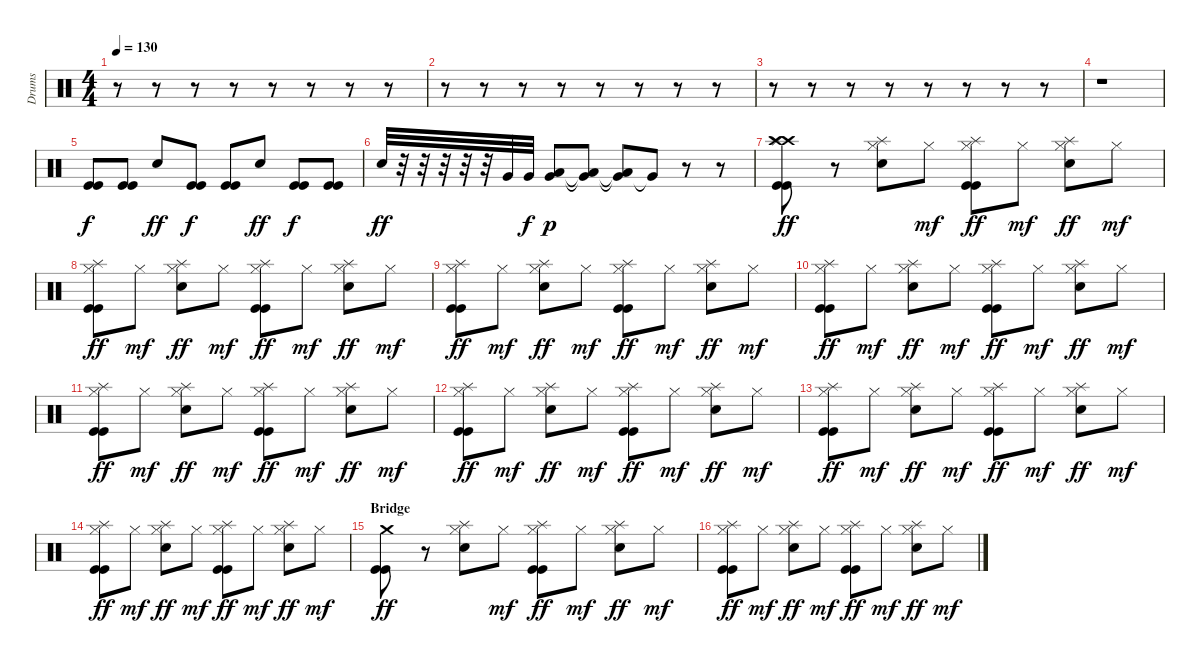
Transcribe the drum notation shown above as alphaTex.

\track ("Drums" "Drums") {instrument percussion}
\staff {score}
\articulation defaults
\ts (4 4)
\tempo 130
\clef neutral
\ks c
r.8{dy mp} r.8 r.8 r.8 r.8 r.8 r.8 r.8 |
r.8 r.8 r.8 r.8 r.8 r.8 r.8 r.8 |
r.8 r.8 r.8 r.8 r.8 r.8 r.8 r.8 |
r.1 |
("Kick (hit)" "Kick (hit)").8{dy f} ("Kick (hit)" "Kick (hit)").8 "Snare (hit) 2".8{dy ff} ("Kick (hit)" "Kick (hit)").8{dy f} ("Kick (hit)" "Kick (hit)").8 "Snare (hit) 2".8{dy ff} ("Kick (hit)" "Kick (hit)").8{dy f} ("Kick (hit)" "Kick (hit)").8 |
"Snare (hit) 2".32{dy ff} r.32 r.32 r.32 r.32 r.32 "Very Low Tom (hit)".32 "Very Low Tom (hit)".32{dy f} ("Very Low Tom (hit)" "Low Floor Tom (hit)").8{dy p} ("Very Low Tom (hit)"{t} "Low Floor Tom (hit)"{t}).8 ("Very Low Tom (hit)"{t} "Low Floor Tom (hit)"{t}).8 "Very Low Tom (hit)"{t}.8 r.8 r.8 |
("Crash high (hit)" "Crash high (hit)" "Splash (hit)" "Kick (hit)" "Kick (hit)").8{dy ff} r.8 ("Hi-Hat (closed)" "Splash (hit)" "Snare (hit) 2").8 "Hi-Hat (closed)".8{dy mf} ("Hi-Hat (closed)" "Splash (hit)" "Kick (hit)" "Kick (hit)").8{dy ff} "Hi-Hat (closed)".8{dy mf} ("Hi-Hat (closed)" "Splash (hit)" "Snare (hit) 2").8{dy ff} "Hi-Hat (closed)".8{dy mf} |
("Hi-Hat (closed)" "Splash (hit)" "Kick (hit)" "Kick (hit)").8{dy ff} "Hi-Hat (closed)".8{dy mf} ("Hi-Hat (closed)" "Splash (hit)" "Snare (hit) 2").8{dy ff} "Hi-Hat (closed)".8{dy mf} ("Hi-Hat (closed)" "Splash (hit)" "Kick (hit)" "Kick (hit)").8{dy ff} "Hi-Hat (closed)".8{dy mf} ("Hi-Hat (closed)" "Splash (hit)" "Snare (hit) 2").8{dy ff} "Hi-Hat (closed)".8{dy mf} |
("Hi-Hat (closed)" "Splash (hit)" "Kick (hit)" "Kick (hit)").8{dy ff} "Hi-Hat (closed)".8{dy mf} ("Hi-Hat (closed)" "Splash (hit)" "Snare (hit) 2").8{dy ff} "Hi-Hat (closed)".8{dy mf} ("Hi-Hat (closed)" "Splash (hit)" "Kick (hit)" "Kick (hit)").8{dy ff} "Hi-Hat (closed)".8{dy mf} ("Hi-Hat (closed)" "Splash (hit)" "Snare (hit) 2").8{dy ff} "Hi-Hat (closed)".8{dy mf} |
("Hi-Hat (closed)" "Splash (hit)" "Kick (hit)" "Kick (hit)").8{dy ff} "Hi-Hat (closed)".8{dy mf} ("Hi-Hat (closed)" "Splash (hit)" "Snare (hit) 2").8{dy ff} "Hi-Hat (closed)".8{dy mf} ("Hi-Hat (closed)" "Splash (hit)" "Kick (hit)" "Kick (hit)").8{dy ff} "Hi-Hat (closed)".8{dy mf} ("Hi-Hat (closed)" "Splash (hit)" "Snare (hit) 2").8{dy ff} "Hi-Hat (closed)".8{dy mf} |
("Hi-Hat (closed)" "Splash (hit)" "Kick (hit)" "Kick (hit)").8{dy ff} "Hi-Hat (closed)".8{dy mf} ("Hi-Hat (closed)" "Splash (hit)" "Snare (hit) 2").8{dy ff} "Hi-Hat (closed)".8{dy mf} ("Hi-Hat (closed)" "Splash (hit)" "Kick (hit)" "Kick (hit)").8{dy ff} "Hi-Hat (closed)".8{dy mf} ("Hi-Hat (closed)" "Splash (hit)" "Snare (hit) 2").8{dy ff} "Hi-Hat (closed)".8{dy mf} |
("Hi-Hat (closed)" "Splash (hit)" "Kick (hit)" "Kick (hit)").8{dy ff} "Hi-Hat (closed)".8{dy mf} ("Hi-Hat (closed)" "Splash (hit)" "Snare (hit) 2").8{dy ff} "Hi-Hat (closed)".8{dy mf} ("Hi-Hat (closed)" "Splash (hit)" "Kick (hit)" "Kick (hit)").8{dy ff} "Hi-Hat (closed)".8{dy mf} ("Hi-Hat (closed)" "Splash (hit)" "Snare (hit) 2").8{dy ff} "Hi-Hat (closed)".8{dy mf} |
("Hi-Hat (closed)" "Splash (hit)" "Kick (hit)" "Kick (hit)").8{dy ff} "Hi-Hat (closed)".8{dy mf} ("Hi-Hat (closed)" "Splash (hit)" "Snare (hit) 2").8{dy ff} "Hi-Hat (closed)".8{dy mf} ("Hi-Hat (closed)" "Splash (hit)" "Kick (hit)" "Kick (hit)").8{dy ff} "Hi-Hat (closed)".8{dy mf} ("Hi-Hat (closed)" "Splash (hit)" "Snare (hit) 2").8{dy ff} "Hi-Hat (closed)".8{dy mf} |
("Hi-Hat (closed)" "Splash (hit)" "Kick (hit)" "Kick (hit)").8{dy ff} "Hi-Hat (closed)".8{dy mf} ("Hi-Hat (closed)" "Splash (hit)" "Snare (hit) 2").8{dy ff} "Hi-Hat (closed)".8{dy mf} ("Hi-Hat (closed)" "Splash (hit)" "Kick (hit)" "Kick (hit)").8{dy ff} "Hi-Hat (closed)".8{dy mf} ("Hi-Hat (closed)" "Splash (hit)" "Snare (hit) 2").8{dy ff} "Hi-Hat (closed)".8{dy mf} |
\section ("" "Bridge")
("Crash medium (hit)" "Kick (hit)" "Kick (hit)").8{dy ff} r.8 ("Hi-Hat (closed)" "Splash (hit)" "Snare (hit) 2").8 "Hi-Hat (closed)".8{dy mf} ("Hi-Hat (closed)" "Splash (hit)" "Kick (hit)" "Kick (hit)").8{dy ff} "Hi-Hat (closed)".8{dy mf} ("Hi-Hat (closed)" "Splash (hit)" "Snare (hit) 2").8{dy ff} "Hi-Hat (closed)".8{dy mf} |
("Hi-Hat (closed)" "Splash (hit)" "Kick (hit)" "Kick (hit)").8{dy ff} "Hi-Hat (closed)".8{dy mf} ("Hi-Hat (closed)" "Splash (hit)" "Snare (hit) 2").8{dy ff} "Hi-Hat (closed)".8{dy mf} ("Hi-Hat (closed)" "Splash (hit)" "Kick (hit)" "Kick (hit)").8{dy ff} "Hi-Hat (closed)".8{dy mf} ("Hi-Hat (closed)" "Splash (hit)" "Snare (hit) 2").8{dy ff} "Hi-Hat (closed)".8{dy mf}
